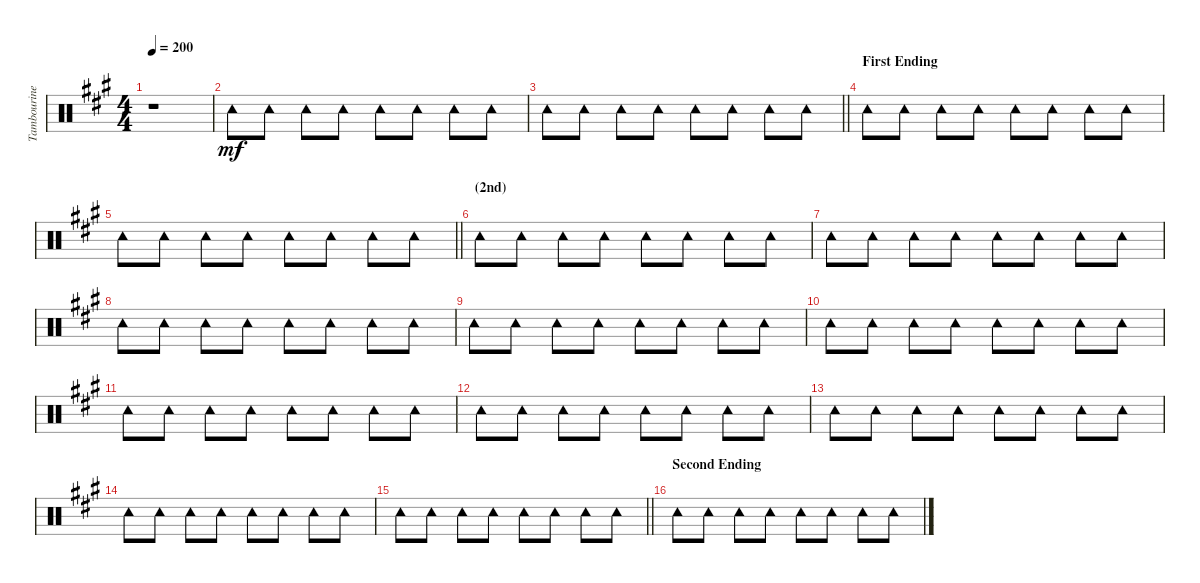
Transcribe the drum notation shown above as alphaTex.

\track ("Tambourine" "Tambourine") {instrument percussion}
\staff {score}
\articulation defaults
\ts (4 4)
\tempo 200
\clef neutral
\ks a
r.1{dy mf} |
"Tambourine (hit)".8 "Tambourine (hit)".8 "Tambourine (hit)".8 "Tambourine (hit)".8 "Tambourine (hit)".8 "Tambourine (hit)".8 "Tambourine (hit)".8 "Tambourine (hit)".8 |
\barLineRight lightlight "Tambourine (hit)".8 "Tambourine (hit)".8 "Tambourine (hit)".8 "Tambourine (hit)".8 "Tambourine (hit)".8 "Tambourine (hit)".8 "Tambourine (hit)".8 "Tambourine (hit)".8
|
\section ("" "First Ending")
"Tambourine (hit)".8 "Tambourine (hit)".8 "Tambourine (hit)".8 "Tambourine (hit)".8 "Tambourine (hit)".8 "Tambourine (hit)".8 "Tambourine (hit)".8 "Tambourine (hit)".8 |
\barLineRight lightlight "Tambourine (hit)".8 "Tambourine (hit)".8 "Tambourine (hit)".8 "Tambourine (hit)".8 "Tambourine (hit)".8 "Tambourine (hit)".8 "Tambourine (hit)".8 "Tambourine (hit)".8
|
\section ("" "(2nd)")
"Tambourine (hit)".8 "Tambourine (hit)".8 "Tambourine (hit)".8 "Tambourine (hit)".8 "Tambourine (hit)".8 "Tambourine (hit)".8 "Tambourine (hit)".8 "Tambourine (hit)".8 |
"Tambourine (hit)".8 "Tambourine (hit)".8 "Tambourine (hit)".8 "Tambourine (hit)".8 "Tambourine (hit)".8 "Tambourine (hit)".8 "Tambourine (hit)".8 "Tambourine (hit)".8 |
"Tambourine (hit)".8 "Tambourine (hit)".8 "Tambourine (hit)".8 "Tambourine (hit)".8 "Tambourine (hit)".8 "Tambourine (hit)".8 "Tambourine (hit)".8 "Tambourine (hit)".8 |
"Tambourine (hit)".8 "Tambourine (hit)".8 "Tambourine (hit)".8 "Tambourine (hit)".8 "Tambourine (hit)".8 "Tambourine (hit)".8 "Tambourine (hit)".8 "Tambourine (hit)".8 |
"Tambourine (hit)".8 "Tambourine (hit)".8 "Tambourine (hit)".8 "Tambourine (hit)".8 "Tambourine (hit)".8 "Tambourine (hit)".8 "Tambourine (hit)".8 "Tambourine (hit)".8 |
"Tambourine (hit)".8 "Tambourine (hit)".8 "Tambourine (hit)".8 "Tambourine (hit)".8 "Tambourine (hit)".8 "Tambourine (hit)".8 "Tambourine (hit)".8 "Tambourine (hit)".8 |
"Tambourine (hit)".8 "Tambourine (hit)".8 "Tambourine (hit)".8 "Tambourine (hit)".8 "Tambourine (hit)".8 "Tambourine (hit)".8 "Tambourine (hit)".8 "Tambourine (hit)".8 |
"Tambourine (hit)".8 "Tambourine (hit)".8 "Tambourine (hit)".8 "Tambourine (hit)".8 "Tambourine (hit)".8 "Tambourine (hit)".8 "Tambourine (hit)".8 "Tambourine (hit)".8 |
"Tambourine (hit)".8 "Tambourine (hit)".8 "Tambourine (hit)".8 "Tambourine (hit)".8 "Tambourine (hit)".8 "Tambourine (hit)".8 "Tambourine (hit)".8 "Tambourine (hit)".8 |
\barLineRight lightlight "Tambourine (hit)".8 "Tambourine (hit)".8 "Tambourine (hit)".8 "Tambourine (hit)".8 "Tambourine (hit)".8 "Tambourine (hit)".8 "Tambourine (hit)".8 "Tambourine (hit)".8
|
\section ("" "Second Ending")
"Tambourine (hit)".8 "Tambourine (hit)".8 "Tambourine (hit)".8 "Tambourine (hit)".8 "Tambourine (hit)".8 "Tambourine (hit)".8 "Tambourine (hit)".8 "Tambourine (hit)".8
